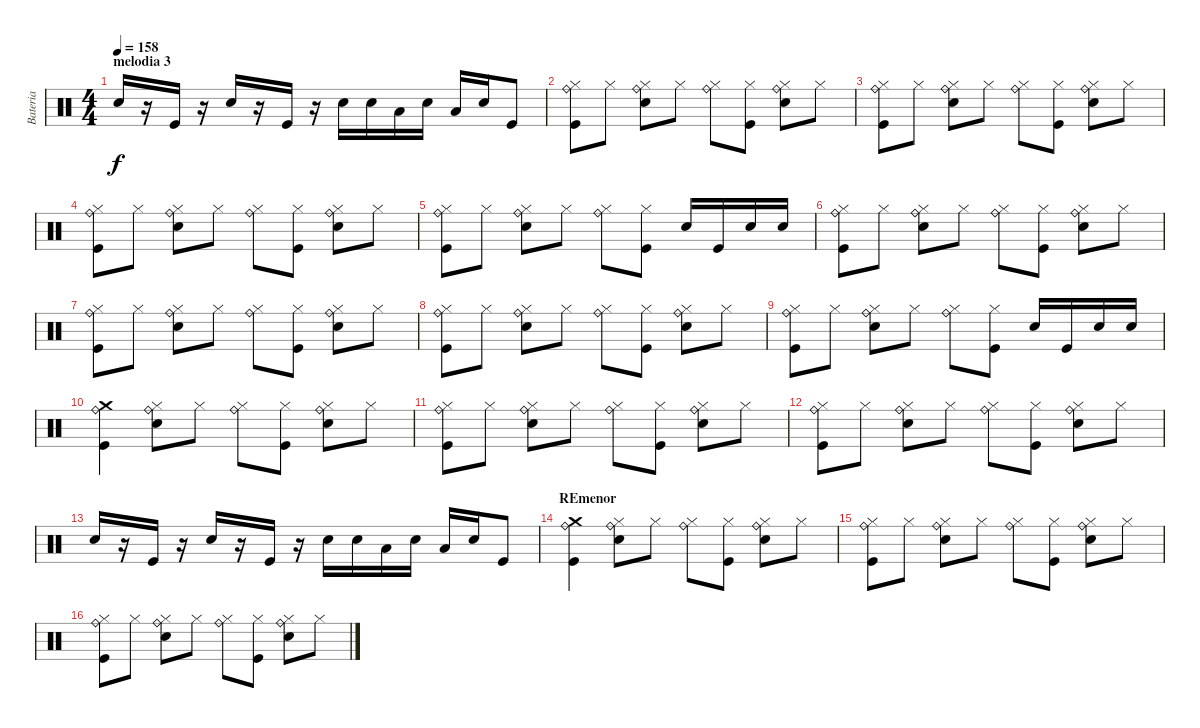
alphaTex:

\track ("Bateria" "Bateria") {instrument percussion}
\staff {score}
\articulation defaults
\ts (4 4)
\section ("" "melodia 3")
\tempo 158
\clef neutral
\ks c "Electric Snare (hit)".16{dy f}
r.16 "Kick (hit)".16 r.16 "Electric Snare (hit)".16 r.16 "Kick (hit)".16 r.16 "Electric Snare (hit)".16 "Electric Snare (hit)".16 "Low Tom (hit)".16 "Electric Snare (hit)".16 "Low Tom (hit)".16 "Electric Snare (hit)".16 "Kick (hit)".8 |
("Kick (hit)" "Hi-Hat (closed)" "Ride (bell)").8 "Hi-Hat (closed)".8 ("Electric Snare (hit)" "Hi-Hat (closed)" "Ride (bell)").8 "Hi-Hat (closed)".8 ("Hi-Hat (closed)" "Ride (bell)").8 ("Kick (hit)" "Hi-Hat (closed)").8 ("Electric Snare (hit)" "Hi-Hat (closed)" "Ride (bell)").8 "Hi-Hat (closed)".8 |
("Kick (hit)" "Hi-Hat (closed)" "Ride (bell)").8 "Hi-Hat (closed)".8 ("Electric Snare (hit)" "Hi-Hat (closed)" "Ride (bell)").8 "Hi-Hat (closed)".8 ("Hi-Hat (closed)" "Ride (bell)").8 ("Kick (hit)" "Hi-Hat (closed)").8 ("Electric Snare (hit)" "Hi-Hat (closed)" "Ride (bell)").8 "Hi-Hat (closed)".8 |
("Kick (hit)" "Hi-Hat (closed)" "Ride (bell)").8 "Hi-Hat (closed)".8 ("Electric Snare (hit)" "Hi-Hat (closed)" "Ride (bell)").8 "Hi-Hat (closed)".8 ("Hi-Hat (closed)" "Ride (bell)").8 ("Kick (hit)" "Hi-Hat (closed)").8 ("Electric Snare (hit)" "Hi-Hat (closed)" "Ride (bell)").8 "Hi-Hat (closed)".8 |
("Kick (hit)" "Hi-Hat (closed)" "Ride (bell)").8 "Hi-Hat (closed)".8 ("Electric Snare (hit)" "Hi-Hat (closed)" "Ride (bell)").8 "Hi-Hat (closed)".8 ("Hi-Hat (closed)" "Ride (bell)").8 ("Kick (hit)" "Hi-Hat (closed)").8 "Electric Snare (hit)".16 "Kick (hit)".16 "Snare (hit) 2".16 "Electric Snare (hit)".16 |
("Kick (hit)" "Hi-Hat (closed)" "Ride (bell)").8 "Hi-Hat (closed)".8 ("Electric Snare (hit)" "Hi-Hat (closed)" "Ride (bell)").8 "Hi-Hat (closed)".8 ("Hi-Hat (closed)" "Ride (bell)").8 ("Kick (hit)" "Hi-Hat (closed)").8 ("Electric Snare (hit)" "Hi-Hat (closed)" "Ride (bell)").8 "Hi-Hat (closed)".8 |
("Kick (hit)" "Hi-Hat (closed)" "Ride (bell)").8 "Hi-Hat (closed)".8 ("Electric Snare (hit)" "Hi-Hat (closed)" "Ride (bell)").8 "Hi-Hat (closed)".8 ("Hi-Hat (closed)" "Ride (bell)").8 ("Kick (hit)" "Hi-Hat (closed)").8 ("Electric Snare (hit)" "Hi-Hat (closed)" "Ride (bell)").8 "Hi-Hat (closed)".8 |
("Kick (hit)" "Hi-Hat (closed)" "Ride (bell)").8 "Hi-Hat (closed)".8 ("Electric Snare (hit)" "Hi-Hat (closed)" "Ride (bell)").8 "Hi-Hat (closed)".8 ("Hi-Hat (closed)" "Ride (bell)").8 ("Kick (hit)" "Hi-Hat (closed)").8 ("Electric Snare (hit)" "Hi-Hat (closed)" "Ride (bell)").8 "Hi-Hat (closed)".8 |
("Kick (hit)" "Hi-Hat (closed)" "Ride (bell)").8 "Hi-Hat (closed)".8 ("Electric Snare (hit)" "Hi-Hat (closed)" "Ride (bell)").8 "Hi-Hat (closed)".8 ("Hi-Hat (closed)" "Ride (bell)").8 ("Kick (hit)" "Hi-Hat (closed)").8 "Electric Snare (hit)".16 "Kick (hit)".16 "Snare (hit) 2".16 "Electric Snare (hit)".16 |
("Kick (hit)" "Crash medium (hit)" "Ride (bell)").4 ("Electric Snare (hit)" "Hi-Hat (closed)" "Ride (bell)").8 "Hi-Hat (closed)".8 ("Hi-Hat (closed)" "Ride (bell)").8 ("Kick (hit)" "Hi-Hat (closed)").8 ("Electric Snare (hit)" "Hi-Hat (closed)" "Ride (bell)").8 "Hi-Hat (closed)".8 |
("Kick (hit)" "Hi-Hat (closed)" "Ride (bell)").8 "Hi-Hat (closed)".8 ("Electric Snare (hit)" "Hi-Hat (closed)" "Ride (bell)").8 "Hi-Hat (closed)".8 ("Hi-Hat (closed)" "Ride (bell)").8 ("Kick (hit)" "Hi-Hat (closed)").8 ("Electric Snare (hit)" "Hi-Hat (closed)" "Ride (bell)").8 "Hi-Hat (closed)".8 |
("Kick (hit)" "Hi-Hat (closed)" "Ride (bell)").8 "Hi-Hat (closed)".8 ("Electric Snare (hit)" "Hi-Hat (closed)" "Ride (bell)").8 "Hi-Hat (closed)".8 ("Hi-Hat (closed)" "Ride (bell)").8 ("Kick (hit)" "Hi-Hat (closed)").8 ("Electric Snare (hit)" "Hi-Hat (closed)" "Ride (bell)").8 "Hi-Hat (closed)".8 |
"Electric Snare (hit)".16 r.16 "Kick (hit)".16 r.16 "Electric Snare (hit)".16 r.16 "Kick (hit)".16 r.16 "Electric Snare (hit)".16 "Electric Snare (hit)".16 "Low Tom (hit)".16 "Electric Snare (hit)".16 "Low Tom (hit)".16 "Electric Snare (hit)".16 "Kick (hit)".8 |
\section ("" "REmenor")
("Kick (hit)" "Crash medium (hit)" "Ride (bell)").4 ("Electric Snare (hit)" "Hi-Hat (closed)" "Ride (bell)").8 "Hi-Hat (closed)".8 ("Hi-Hat (closed)" "Ride (bell)").8 ("Kick (hit)" "Hi-Hat (closed)").8 ("Electric Snare (hit)" "Hi-Hat (closed)" "Ride (bell)").8 "Hi-Hat (closed)".8 |
("Kick (hit)" "Hi-Hat (closed)" "Ride (bell)").8 "Hi-Hat (closed)".8 ("Electric Snare (hit)" "Hi-Hat (closed)" "Ride (bell)").8 "Hi-Hat (closed)".8 ("Hi-Hat (closed)" "Ride (bell)").8 ("Kick (hit)" "Hi-Hat (closed)").8 ("Electric Snare (hit)" "Hi-Hat (closed)" "Ride (bell)").8 "Hi-Hat (closed)".8 |
("Kick (hit)" "Hi-Hat (closed)" "Ride (bell)").8 "Hi-Hat (closed)".8 ("Electric Snare (hit)" "Hi-Hat (closed)" "Ride (bell)").8 "Hi-Hat (closed)".8 ("Hi-Hat (closed)" "Ride (bell)").8 ("Kick (hit)" "Hi-Hat (closed)").8 ("Electric Snare (hit)" "Hi-Hat (closed)" "Ride (bell)").8 "Hi-Hat (closed)".8
